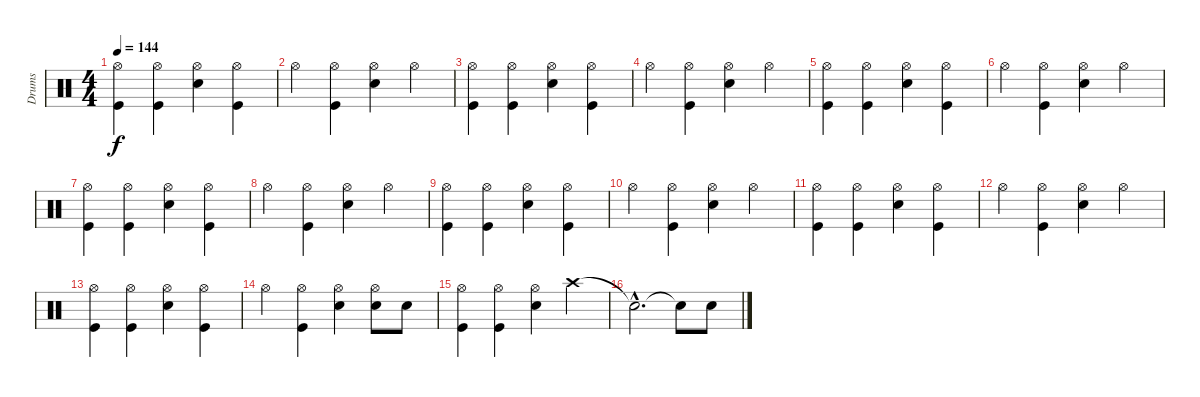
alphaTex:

\track ("Drums               " "Drums     ") {instrument percussion}
\staff {score}
\articulation defaults
\ts (4 4)
\tempo 144
\clef neutral
\ks c
("Kick (hit)" "Hi-Hat (open)").4{dy f} ("Kick (hit)" "Hi-Hat (open)").4 ("Snare (hit) 2" "Hi-Hat (open)").4 ("Kick (hit)" "Hi-Hat (open)").4 |
"Hi-Hat (open)".4 ("Kick (hit)" "Hi-Hat (open)").4 ("Snare (hit) 2" "Hi-Hat (open)").4 "Hi-Hat (open)".4 |
("Kick (hit)" "Hi-Hat (open)").4 ("Kick (hit)" "Hi-Hat (open)").4 ("Snare (hit) 2" "Hi-Hat (open)").4 ("Kick (hit)" "Hi-Hat (open)").4 |
"Hi-Hat (open)".4 ("Kick (hit)" "Hi-Hat (open)").4 ("Snare (hit) 2" "Hi-Hat (open)").4 "Hi-Hat (open)".4 |
("Kick (hit)" "Hi-Hat (open)").4 ("Kick (hit)" "Hi-Hat (open)").4 ("Snare (hit) 2" "Hi-Hat (open)").4 ("Kick (hit)" "Hi-Hat (open)").4 |
"Hi-Hat (open)".4 ("Kick (hit)" "Hi-Hat (open)").4 ("Snare (hit) 2" "Hi-Hat (open)").4 "Hi-Hat (open)".4 |
("Kick (hit)" "Hi-Hat (open)").4 ("Kick (hit)" "Hi-Hat (open)").4 ("Snare (hit) 2" "Hi-Hat (open)").4 ("Kick (hit)" "Hi-Hat (open)").4 |
"Hi-Hat (open)".4 ("Kick (hit)" "Hi-Hat (open)").4 ("Snare (hit) 2" "Hi-Hat (open)").4 "Hi-Hat (open)".4 |
("Kick (hit)" "Hi-Hat (open)").4 ("Kick (hit)" "Hi-Hat (open)").4 ("Snare (hit) 2" "Hi-Hat (open)").4 ("Kick (hit)" "Hi-Hat (open)").4 |
"Hi-Hat (open)".4 ("Kick (hit)" "Hi-Hat (open)").4 ("Snare (hit) 2" "Hi-Hat (open)").4 "Hi-Hat (open)".4 |
("Kick (hit)" "Hi-Hat (open)").4 ("Kick (hit)" "Hi-Hat (open)").4 ("Snare (hit) 2" "Hi-Hat (open)").4 ("Kick (hit)" "Hi-Hat (open)").4 |
"Hi-Hat (open)".4 ("Kick (hit)" "Hi-Hat (open)").4 ("Snare (hit) 2" "Hi-Hat (open)").4 "Hi-Hat (open)".4 |
("Kick (hit)" "Hi-Hat (open)").4 ("Kick (hit)" "Hi-Hat (open)").4 ("Snare (hit) 2" "Hi-Hat (open)").4 ("Kick (hit)" "Hi-Hat (open)").4 |
"Hi-Hat (open)".4 ("Kick (hit)" "Hi-Hat (open)").4 ("Hi-Hat (open)" "Snare (hit) 2").4 ("Hi-Hat (open)" "Snare (hit) 2").8 "Snare (hit) 2".8 |
("Kick (hit)" "Hi-Hat (open)").4 ("Kick (hit)" "Hi-Hat (open)").4 ("Snare (hit) 2" "Hi-Hat (open)").4 "Crash high (hit)".4 |
"Snare (hit)"{hac t}.2{d} "Snare (hit)"{t}.8 "Snare (hit) 2".8
